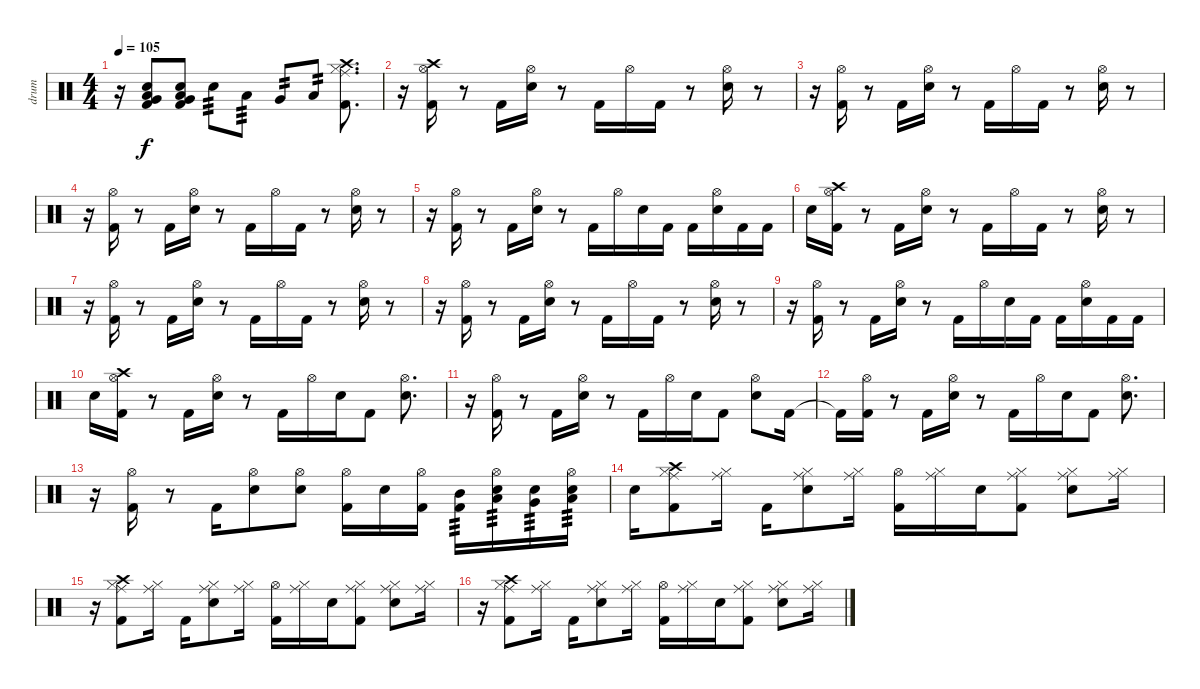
\track ("drum" "drum") {instrument percussion}
\staff {score}
\articulation defaults
\ts (4 4)
\tempo 105
\clef neutral
\ks c
r.16{dy f} ("Very Low Tom (hit)" "Low Floor Tom (hit)" "Electric Snare (hit)" "Kick (hit) 2").8 ("Very Low Tom (hit)" "Low Floor Tom (hit)" "Electric Snare (hit)" "Kick (hit) 2").8 "Electric Snare (hit)".8{tp 3} "Low Tom (hit)".8{tp 3} "Very Low Tom (hit)".8{tp 2} "Low Floor Tom (hit)".8{tp 2} ("Crash high (hit)" "Hi-Hat (closed)" "Ride (middle)" "Kick (hit) 2").8{d} |
r.16 ("Crash high (hit)" "Hi-Hat (open)" "Kick (hit) 2").16 r.8 "Kick (hit) 2".16 ("Hi-Hat (open)" "Electric Snare (hit)").16 r.8 "Kick (hit) 2".16 "Hi-Hat (open)".16 "Kick (hit) 2".16 r.8 ("Hi-Hat (open)" "Electric Snare (hit)").16 r.8 |
r.16 ("Hi-Hat (open)" "Kick (hit) 2").16 r.8 "Kick (hit) 2".16 ("Hi-Hat (open)" "Electric Snare (hit)").16 r.8 "Kick (hit) 2".16 "Hi-Hat (open)".16 "Kick (hit) 2".16 r.8 ("Hi-Hat (open)" "Electric Snare (hit)").16 r.8 |
r.16 ("Hi-Hat (open)" "Kick (hit) 2").16 r.8 "Kick (hit) 2".16 ("Hi-Hat (open)" "Electric Snare (hit)").16 r.8 "Kick (hit) 2".16 "Hi-Hat (open)".16 "Kick (hit) 2".16 r.8 ("Hi-Hat (open)" "Electric Snare (hit)").16 r.8 |
r.16 ("Hi-Hat (open)" "Kick (hit) 2").16 r.8 "Kick (hit) 2".16 ("Hi-Hat (open)" "Electric Snare (hit)").16 r.8 "Kick (hit) 2".16 "Hi-Hat (open)".16 "Electric Snare (hit)".16 "Kick (hit) 2".16 "Kick (hit) 2".16 ("Hi-Hat (open)" "Electric Snare (hit)").16 "Kick (hit) 2".16 "Kick (hit) 2".16 |
"Electric Snare (hit)".16 ("Crash high (hit)" "Hi-Hat (open)" "Kick (hit) 2").16 r.8 "Kick (hit) 2".16 ("Hi-Hat (open)" "Electric Snare (hit)").16 r.8 "Kick (hit) 2".16 "Hi-Hat (open)".16 "Kick (hit) 2".16 r.8 ("Hi-Hat (open)" "Electric Snare (hit)").16 r.8 |
r.16 ("Hi-Hat (open)" "Kick (hit) 2").16 r.8 "Kick (hit) 2".16 ("Hi-Hat (open)" "Electric Snare (hit)").16 r.8 "Kick (hit) 2".16 "Hi-Hat (open)".16 "Kick (hit) 2".16 r.8 ("Hi-Hat (open)" "Electric Snare (hit)").16 r.8 |
r.16 ("Hi-Hat (open)" "Kick (hit) 2").16 r.8 "Kick (hit) 2".16 ("Hi-Hat (open)" "Electric Snare (hit)").16 r.8 "Kick (hit) 2".16 "Hi-Hat (open)".16 "Kick (hit) 2".16 r.8 ("Hi-Hat (open)" "Electric Snare (hit)").16 r.8 |
r.16 ("Hi-Hat (open)" "Kick (hit) 2").16 r.8 "Kick (hit) 2".16 ("Hi-Hat (open)" "Electric Snare (hit)").16 r.8 "Kick (hit) 2".16 "Hi-Hat (open)".16 "Electric Snare (hit)".16 "Kick (hit) 2".16 "Kick (hit) 2".16 ("Hi-Hat (open)" "Electric Snare (hit)").16 "Kick (hit) 2".16 "Kick (hit) 2".16 |
"Electric Snare (hit)".16 ("Crash high (hit)" "Hi-Hat (open)" "Kick (hit) 2").16 r.8 "Kick (hit) 2".16 ("Hi-Hat (open)" "Electric Snare (hit)").16 r.8 "Kick (hit) 2".16 "Hi-Hat (open)".16 "Electric Snare (hit)".16 "Kick (hit) 2".8 ("Hi-Hat (open)" "Electric Snare (hit)").8{d} |
r.16 ("Hi-Hat (open)" "Kick (hit) 2").16 r.8 "Kick (hit) 2".16 ("Hi-Hat (open)" "Electric Snare (hit)").16 r.8 "Kick (hit) 2".16 "Hi-Hat (open)".16 "Electric Snare (hit)".16 "Kick (hit) 2".8 ("Hi-Hat (open)" "Electric Snare (hit)").8 "Kick (hit) 2".16 |
"Kick (hit) 2"{t}.16 ("Hi-Hat (open)" "Kick (hit) 2").16 r.8 "Kick (hit) 2".16 ("Hi-Hat (open)" "Electric Snare (hit)").16 r.8 "Kick (hit) 2".16 "Hi-Hat (open)".16 "Electric Snare (hit)".16 "Kick (hit) 2".8 ("Hi-Hat (open)" "Electric Snare (hit)").8{d} |
r.16 ("Hi-Hat (open)" "Kick (hit) 2").16 r.8 "Kick (hit) 2".16 ("Hi-Hat (open)" "Electric Snare (hit)").8 ("Hi-Hat (open)" "Electric Snare (hit)").8 ("Hi-Hat (open)" "Kick (hit) 2").16 "Electric Snare (hit)".16 ("Hi-Hat (open)" "Kick (hit) 2").16 ("Mid Tom (hit)" "Kick (hit) 2").16{tp 3} ("Hi-Hat (open)" "Low Tom (hit)" "Electric Snare (hit)").16{tp 3} ("Very Low Tom (hit)" "Electric Snare (hit)").16{tp 3} ("Hi-Hat (open)" "Low Floor Tom (hit)" "Electric Snare (hit)").16{tp 3} |
"Electric Snare (hit)".16 ("Crash high (hit)" "Hi-Hat (closed)" "Ride (middle)" "Kick (hit) 2").8 ("Hi-Hat (closed)" "Ride (middle)").16 "Kick (hit) 2".16 ("Hi-Hat (closed)" "Ride (middle)" "Electric Snare (hit)").8 ("Hi-Hat (closed)" "Ride (middle)").16 ("Hi-Hat (open)" "Kick (hit) 2").16 ("Hi-Hat (closed)" "Ride (middle)").16 "Electric Snare (hit)".16 ("Hi-Hat (closed)" "Ride (middle)" "Kick (hit) 2").8 ("Hi-Hat (closed)" "Ride (middle)" "Electric Snare (hit)").8 ("Hi-Hat (closed)" "Ride (middle)").16 |
r.16 ("Crash high (hit)" "Hi-Hat (closed)" "Ride (middle)" "Kick (hit) 2").8 ("Hi-Hat (closed)" "Ride (middle)").16 "Kick (hit) 2".16 ("Hi-Hat (closed)" "Ride (middle)" "Electric Snare (hit)").8 ("Hi-Hat (closed)" "Ride (middle)").16 ("Hi-Hat (open)" "Kick (hit) 2").16 ("Hi-Hat (closed)" "Ride (middle)").16 "Electric Snare (hit)".16 ("Hi-Hat (closed)" "Ride (middle)" "Kick (hit) 2").8 ("Hi-Hat (closed)" "Ride (middle)" "Electric Snare (hit)").8 ("Hi-Hat (closed)" "Ride (middle)").16 |
r.16 ("Crash high (hit)" "Hi-Hat (closed)" "Ride (middle)" "Kick (hit) 2").8 ("Hi-Hat (closed)" "Ride (middle)").16 "Kick (hit) 2".16 ("Hi-Hat (closed)" "Ride (middle)" "Electric Snare (hit)").8 ("Hi-Hat (closed)" "Ride (middle)").16 ("Hi-Hat (open)" "Kick (hit) 2").16 ("Hi-Hat (closed)" "Ride (middle)").16 "Electric Snare (hit)".16 ("Hi-Hat (closed)" "Ride (middle)" "Kick (hit) 2").8 ("Hi-Hat (closed)" "Ride (middle)" "Electric Snare (hit)").8 ("Hi-Hat (closed)" "Ride (middle)").16
